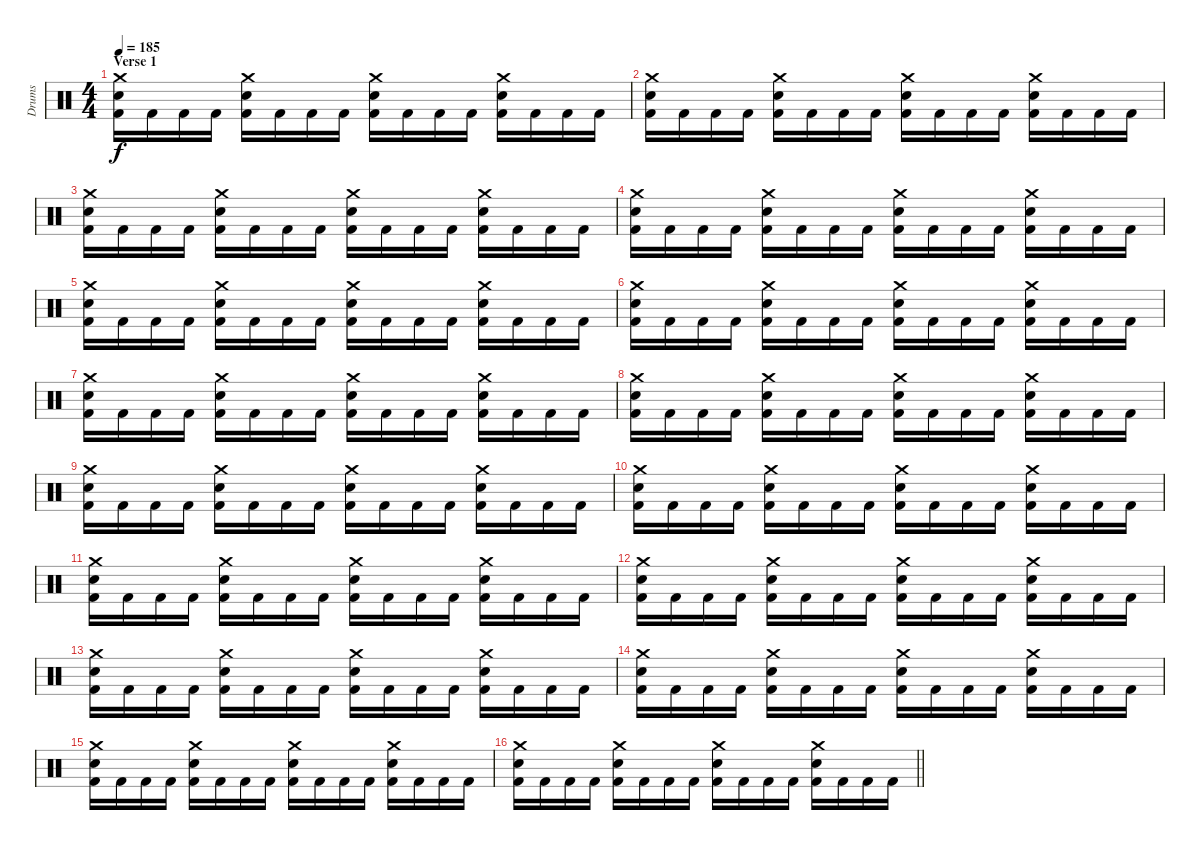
\track ("Drums" "Drums") {instrument percussion}
\staff {score}
\articulation defaults
\ts (4 4)
\section ("" "Verse 1")
\tempo 185
\clef neutral
\ks c
("Crash medium (hit)" "Snare (hit) 2" "Kick (hit) 2").16{dy f} "Kick (hit) 2".16 "Kick (hit) 2".16 "Kick (hit) 2".16 ("Crash medium (hit)" "Snare (hit) 2" "Kick (hit) 2").16 "Kick (hit) 2".16 "Kick (hit) 2".16 "Kick (hit) 2".16 ("Crash medium (hit)" "Snare (hit) 2" "Kick (hit) 2").16 "Kick (hit) 2".16 "Kick (hit) 2".16 "Kick (hit) 2".16 ("Crash medium (hit)" "Snare (hit) 2" "Kick (hit) 2").16 "Kick (hit) 2".16 "Kick (hit) 2".16 "Kick (hit) 2".16 |
("Crash medium (hit)" "Snare (hit) 2" "Kick (hit) 2").16 "Kick (hit) 2".16 "Kick (hit) 2".16 "Kick (hit) 2".16 ("Crash medium (hit)" "Snare (hit) 2" "Kick (hit) 2").16 "Kick (hit) 2".16 "Kick (hit) 2".16 "Kick (hit) 2".16 ("Crash medium (hit)" "Snare (hit) 2" "Kick (hit) 2").16 "Kick (hit) 2".16 "Kick (hit) 2".16 "Kick (hit) 2".16 ("Crash medium (hit)" "Snare (hit) 2" "Kick (hit) 2").16 "Kick (hit) 2".16 "Kick (hit) 2".16 "Kick (hit) 2".16 |
("Crash medium (hit)" "Snare (hit) 2" "Kick (hit) 2").16 "Kick (hit) 2".16 "Kick (hit) 2".16 "Kick (hit) 2".16 ("Crash medium (hit)" "Snare (hit) 2" "Kick (hit) 2").16 "Kick (hit) 2".16 "Kick (hit) 2".16 "Kick (hit) 2".16 ("Crash medium (hit)" "Snare (hit) 2" "Kick (hit) 2").16 "Kick (hit) 2".16 "Kick (hit) 2".16 "Kick (hit) 2".16 ("Crash medium (hit)" "Snare (hit) 2" "Kick (hit) 2").16 "Kick (hit) 2".16 "Kick (hit) 2".16 "Kick (hit) 2".16 |
("Crash medium (hit)" "Snare (hit) 2" "Kick (hit) 2").16 "Kick (hit) 2".16 "Kick (hit) 2".16 "Kick (hit) 2".16 ("Crash medium (hit)" "Snare (hit) 2" "Kick (hit) 2").16 "Kick (hit) 2".16 "Kick (hit) 2".16 "Kick (hit) 2".16 ("Crash medium (hit)" "Snare (hit) 2" "Kick (hit) 2").16 "Kick (hit) 2".16 "Kick (hit) 2".16 "Kick (hit) 2".16 ("Crash medium (hit)" "Snare (hit) 2" "Kick (hit) 2").16 "Kick (hit) 2".16 "Kick (hit) 2".16 "Kick (hit) 2".16 |
("Crash medium (hit)" "Snare (hit) 2" "Kick (hit) 2").16 "Kick (hit) 2".16 "Kick (hit) 2".16 "Kick (hit) 2".16 ("Crash medium (hit)" "Snare (hit) 2" "Kick (hit) 2").16 "Kick (hit) 2".16 "Kick (hit) 2".16 "Kick (hit) 2".16 ("Crash medium (hit)" "Snare (hit) 2" "Kick (hit) 2").16 "Kick (hit) 2".16 "Kick (hit) 2".16 "Kick (hit) 2".16 ("Crash medium (hit)" "Snare (hit) 2" "Kick (hit) 2").16 "Kick (hit) 2".16 "Kick (hit) 2".16 "Kick (hit) 2".16 |
("Crash medium (hit)" "Snare (hit) 2" "Kick (hit) 2").16 "Kick (hit) 2".16 "Kick (hit) 2".16 "Kick (hit) 2".16 ("Crash medium (hit)" "Snare (hit) 2" "Kick (hit) 2").16 "Kick (hit) 2".16 "Kick (hit) 2".16 "Kick (hit) 2".16 ("Crash medium (hit)" "Snare (hit) 2" "Kick (hit) 2").16 "Kick (hit) 2".16 "Kick (hit) 2".16 "Kick (hit) 2".16 ("Crash medium (hit)" "Snare (hit) 2" "Kick (hit) 2").16 "Kick (hit) 2".16 "Kick (hit) 2".16 "Kick (hit) 2".16 |
("Crash medium (hit)" "Snare (hit) 2" "Kick (hit) 2").16 "Kick (hit) 2".16 "Kick (hit) 2".16 "Kick (hit) 2".16 ("Crash medium (hit)" "Snare (hit) 2" "Kick (hit) 2").16 "Kick (hit) 2".16 "Kick (hit) 2".16 "Kick (hit) 2".16 ("Crash medium (hit)" "Snare (hit) 2" "Kick (hit) 2").16 "Kick (hit) 2".16 "Kick (hit) 2".16 "Kick (hit) 2".16 ("Crash medium (hit)" "Snare (hit) 2" "Kick (hit) 2").16 "Kick (hit) 2".16 "Kick (hit) 2".16 "Kick (hit) 2".16 |
("Crash medium (hit)" "Snare (hit) 2" "Kick (hit) 2").16 "Kick (hit) 2".16 "Kick (hit) 2".16 "Kick (hit) 2".16 ("Crash medium (hit)" "Snare (hit) 2" "Kick (hit) 2").16 "Kick (hit) 2".16 "Kick (hit) 2".16 "Kick (hit) 2".16 ("Crash medium (hit)" "Snare (hit) 2" "Kick (hit) 2").16 "Kick (hit) 2".16 "Kick (hit) 2".16 "Kick (hit) 2".16 ("Crash medium (hit)" "Snare (hit) 2" "Kick (hit) 2").16 "Kick (hit) 2".16 "Kick (hit) 2".16 "Kick (hit) 2".16 |
("Crash medium (hit)" "Snare (hit) 2" "Kick (hit) 2").16 "Kick (hit) 2".16 "Kick (hit) 2".16 "Kick (hit) 2".16 ("Crash medium (hit)" "Snare (hit) 2" "Kick (hit) 2").16 "Kick (hit) 2".16 "Kick (hit) 2".16 "Kick (hit) 2".16 ("Crash medium (hit)" "Snare (hit) 2" "Kick (hit) 2").16 "Kick (hit) 2".16 "Kick (hit) 2".16 "Kick (hit) 2".16 ("Crash medium (hit)" "Snare (hit) 2" "Kick (hit) 2").16 "Kick (hit) 2".16 "Kick (hit) 2".16 "Kick (hit) 2".16 |
("Crash medium (hit)" "Snare (hit) 2" "Kick (hit) 2").16 "Kick (hit) 2".16 "Kick (hit) 2".16 "Kick (hit) 2".16 ("Crash medium (hit)" "Snare (hit) 2" "Kick (hit) 2").16 "Kick (hit) 2".16 "Kick (hit) 2".16 "Kick (hit) 2".16 ("Crash medium (hit)" "Snare (hit) 2" "Kick (hit) 2").16 "Kick (hit) 2".16 "Kick (hit) 2".16 "Kick (hit) 2".16 ("Crash medium (hit)" "Snare (hit) 2" "Kick (hit) 2").16 "Kick (hit) 2".16 "Kick (hit) 2".16 "Kick (hit) 2".16 |
("Crash medium (hit)" "Snare (hit) 2" "Kick (hit) 2").16 "Kick (hit) 2".16 "Kick (hit) 2".16 "Kick (hit) 2".16 ("Crash medium (hit)" "Snare (hit) 2" "Kick (hit) 2").16 "Kick (hit) 2".16 "Kick (hit) 2".16 "Kick (hit) 2".16 ("Crash medium (hit)" "Snare (hit) 2" "Kick (hit) 2").16 "Kick (hit) 2".16 "Kick (hit) 2".16 "Kick (hit) 2".16 ("Crash medium (hit)" "Snare (hit) 2" "Kick (hit) 2").16 "Kick (hit) 2".16 "Kick (hit) 2".16 "Kick (hit) 2".16 |
("Crash medium (hit)" "Snare (hit) 2" "Kick (hit) 2").16 "Kick (hit) 2".16 "Kick (hit) 2".16 "Kick (hit) 2".16 ("Crash medium (hit)" "Snare (hit) 2" "Kick (hit) 2").16 "Kick (hit) 2".16 "Kick (hit) 2".16 "Kick (hit) 2".16 ("Crash medium (hit)" "Snare (hit) 2" "Kick (hit) 2").16 "Kick (hit) 2".16 "Kick (hit) 2".16 "Kick (hit) 2".16 ("Crash medium (hit)" "Snare (hit) 2" "Kick (hit) 2").16 "Kick (hit) 2".16 "Kick (hit) 2".16 "Kick (hit) 2".16 |
("Crash medium (hit)" "Snare (hit) 2" "Kick (hit) 2").16 "Kick (hit) 2".16 "Kick (hit) 2".16 "Kick (hit) 2".16 ("Crash medium (hit)" "Snare (hit) 2" "Kick (hit) 2").16 "Kick (hit) 2".16 "Kick (hit) 2".16 "Kick (hit) 2".16 ("Crash medium (hit)" "Snare (hit) 2" "Kick (hit) 2").16 "Kick (hit) 2".16 "Kick (hit) 2".16 "Kick (hit) 2".16 ("Crash medium (hit)" "Snare (hit) 2" "Kick (hit) 2").16 "Kick (hit) 2".16 "Kick (hit) 2".16 "Kick (hit) 2".16 |
("Crash medium (hit)" "Snare (hit) 2" "Kick (hit) 2").16 "Kick (hit) 2".16 "Kick (hit) 2".16 "Kick (hit) 2".16 ("Crash medium (hit)" "Snare (hit) 2" "Kick (hit) 2").16 "Kick (hit) 2".16 "Kick (hit) 2".16 "Kick (hit) 2".16 ("Crash medium (hit)" "Snare (hit) 2" "Kick (hit) 2").16 "Kick (hit) 2".16 "Kick (hit) 2".16 "Kick (hit) 2".16 ("Crash medium (hit)" "Snare (hit) 2" "Kick (hit) 2").16 "Kick (hit) 2".16 "Kick (hit) 2".16 "Kick (hit) 2".16 |
("Crash medium (hit)" "Snare (hit) 2" "Kick (hit) 2").16 "Kick (hit) 2".16 "Kick (hit) 2".16 "Kick (hit) 2".16 ("Crash medium (hit)" "Snare (hit) 2" "Kick (hit) 2").16 "Kick (hit) 2".16 "Kick (hit) 2".16 "Kick (hit) 2".16 ("Crash medium (hit)" "Snare (hit) 2" "Kick (hit) 2").16 "Kick (hit) 2".16 "Kick (hit) 2".16 "Kick (hit) 2".16 ("Crash medium (hit)" "Snare (hit) 2" "Kick (hit) 2").16 "Kick (hit) 2".16 "Kick (hit) 2".16 "Kick (hit) 2".16 |
\barLineRight lightlight
("Crash medium (hit)" "Snare (hit) 2" "Kick (hit) 2").16 "Kick (hit) 2".16 "Kick (hit) 2".16 "Kick (hit) 2".16 ("Crash medium (hit)" "Snare (hit) 2" "Kick (hit) 2").16 "Kick (hit) 2".16 "Kick (hit) 2".16 "Kick (hit) 2".16 ("Crash medium (hit)" "Snare (hit) 2" "Kick (hit) 2").16 "Kick (hit) 2".16 "Kick (hit) 2".16 "Kick (hit) 2".16 ("Crash medium (hit)" "Snare (hit) 2" "Kick (hit) 2").16 "Kick (hit) 2".16 "Kick (hit) 2".16 "Kick (hit) 2".16
